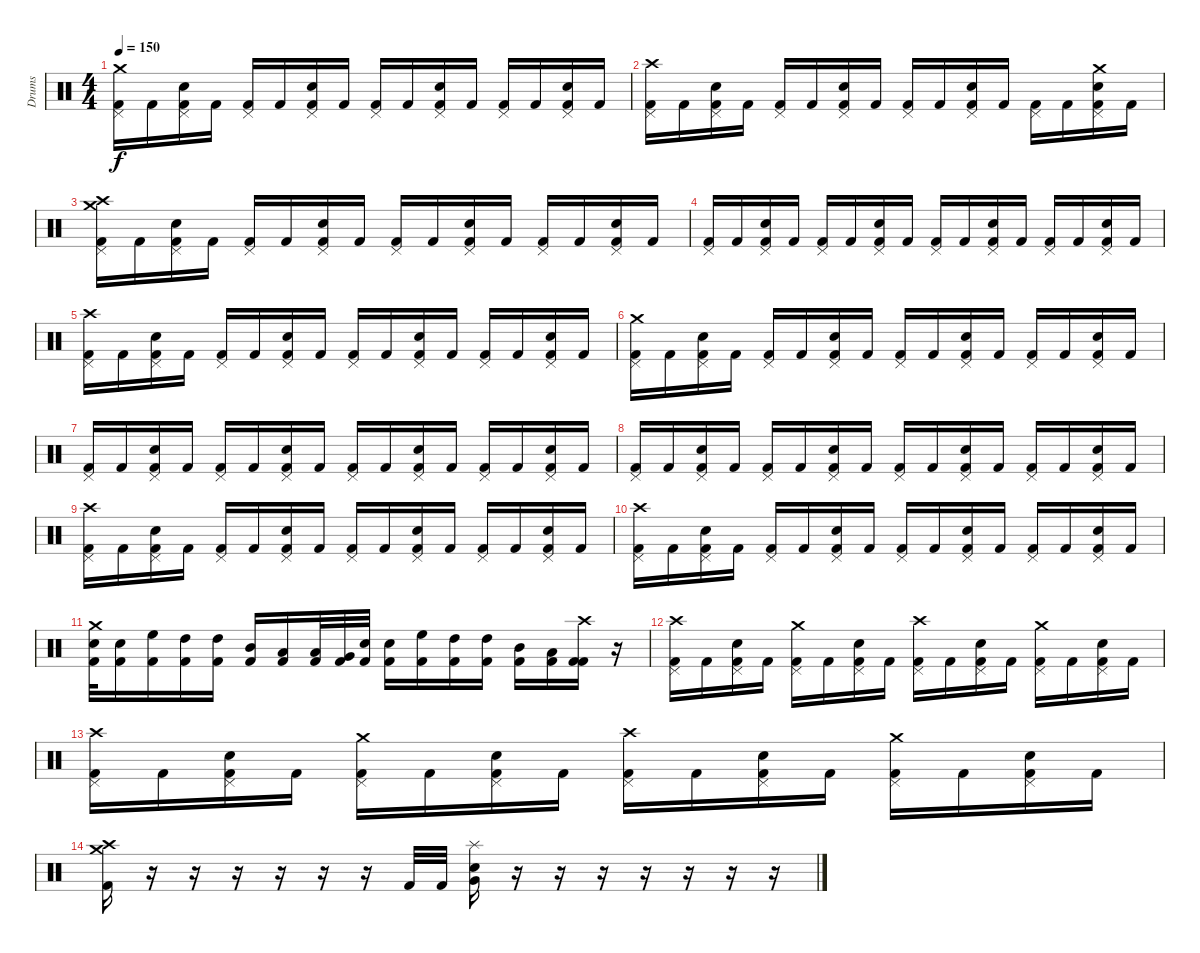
\track ("Drums" "Drums") {instrument percussion}
\staff {score}
\articulation defaults
\ts (4 4)
\tempo 150
\clef neutral
\ks c
("Crash medium (hit)" "Pedal Hi-Hat (hit)" "Kick (hit) 2").16{dy f} "Kick (hit) 2".16 ("Pedal Hi-Hat (hit)" "Kick (hit) 2" "Electric Snare (hit)").16 "Kick (hit) 2".16 ("Pedal Hi-Hat (hit)" "Kick (hit) 2").16 "Kick (hit) 2".16 ("Pedal Hi-Hat (hit)" "Kick (hit) 2" "Electric Snare (hit)").16 "Kick (hit) 2".16 ("Pedal Hi-Hat (hit)" "Kick (hit) 2").16 "Kick (hit) 2".16 ("Pedal Hi-Hat (hit)" "Kick (hit) 2" "Electric Snare (hit)").16 "Kick (hit) 2".16 ("Pedal Hi-Hat (hit)" "Kick (hit) 2").16 "Kick (hit) 2".16 ("Pedal Hi-Hat (hit)" "Kick (hit) 2" "Electric Snare (hit)").16 "Kick (hit) 2".16 |
("Crash high (hit)" "Pedal Hi-Hat (hit)" "Kick (hit) 2").16 "Kick (hit) 2".16 ("Pedal Hi-Hat (hit)" "Kick (hit) 2" "Electric Snare (hit)").16 "Kick (hit) 2".16 ("Pedal Hi-Hat (hit)" "Kick (hit) 2").16 "Kick (hit) 2".16 ("Pedal Hi-Hat (hit)" "Kick (hit) 2" "Electric Snare (hit)").16 "Kick (hit) 2".16 ("Pedal Hi-Hat (hit)" "Kick (hit) 2").16 "Kick (hit) 2".16 ("Pedal Hi-Hat (hit)" "Kick (hit) 2" "Electric Snare (hit)").16 "Kick (hit) 2".16 ("Pedal Hi-Hat (hit)" "Kick (hit) 2").16 "Kick (hit) 2".16 ("Crash medium (hit)" "Pedal Hi-Hat (hit)" "Kick (hit) 2" "Electric Snare (hit)").16 "Kick (hit) 2".16 |
("Crash medium (hit)" "Crash high (hit)" "Pedal Hi-Hat (hit)" "Kick (hit) 2").16 "Kick (hit) 2".16 ("Pedal Hi-Hat (hit)" "Kick (hit) 2" "Electric Snare (hit)").16 "Kick (hit) 2".16 ("Pedal Hi-Hat (hit)" "Kick (hit) 2").16 "Kick (hit) 2".16 ("Pedal Hi-Hat (hit)" "Kick (hit) 2" "Electric Snare (hit)").16 "Kick (hit) 2".16 ("Pedal Hi-Hat (hit)" "Kick (hit) 2").16 "Kick (hit) 2".16 ("Pedal Hi-Hat (hit)" "Kick (hit) 2" "Electric Snare (hit)").16 "Kick (hit) 2".16 ("Pedal Hi-Hat (hit)" "Kick (hit) 2").16 "Kick (hit) 2".16 ("Pedal Hi-Hat (hit)" "Kick (hit) 2" "Electric Snare (hit)").16 "Kick (hit) 2".16 |
("Pedal Hi-Hat (hit)" "Kick (hit) 2").16 "Kick (hit) 2".16 ("Pedal Hi-Hat (hit)" "Kick (hit) 2" "Electric Snare (hit)").16 "Kick (hit) 2".16 ("Pedal Hi-Hat (hit)" "Kick (hit) 2").16 "Kick (hit) 2".16 ("Pedal Hi-Hat (hit)" "Kick (hit) 2" "Electric Snare (hit)").16 "Kick (hit) 2".16 ("Pedal Hi-Hat (hit)" "Kick (hit) 2").16 "Kick (hit) 2".16 ("Pedal Hi-Hat (hit)" "Kick (hit) 2" "Electric Snare (hit)").16 "Kick (hit) 2".16 ("Pedal Hi-Hat (hit)" "Kick (hit) 2").16 "Kick (hit) 2".16 ("Pedal Hi-Hat (hit)" "Kick (hit) 2" "Electric Snare (hit)").16 "Kick (hit) 2".16 |
("Crash high (hit)" "Pedal Hi-Hat (hit)" "Kick (hit) 2").16 "Kick (hit) 2".16 ("Pedal Hi-Hat (hit)" "Kick (hit) 2" "Electric Snare (hit)").16 "Kick (hit) 2".16 ("Pedal Hi-Hat (hit)" "Kick (hit) 2").16 "Kick (hit) 2".16 ("Pedal Hi-Hat (hit)" "Kick (hit) 2" "Electric Snare (hit)").16 "Kick (hit) 2".16 ("Pedal Hi-Hat (hit)" "Kick (hit) 2").16 "Kick (hit) 2".16 ("Pedal Hi-Hat (hit)" "Kick (hit) 2" "Electric Snare (hit)").16 "Kick (hit) 2".16 ("Pedal Hi-Hat (hit)" "Kick (hit) 2").16 "Kick (hit) 2".16 ("Pedal Hi-Hat (hit)" "Kick (hit) 2" "Electric Snare (hit)").16 "Kick (hit) 2".16 |
("Crash medium (hit)" "Pedal Hi-Hat (hit)" "Kick (hit) 2").16 "Kick (hit) 2".16 ("Pedal Hi-Hat (hit)" "Kick (hit) 2" "Electric Snare (hit)").16 "Kick (hit) 2".16 ("Pedal Hi-Hat (hit)" "Kick (hit) 2").16 "Kick (hit) 2".16 ("Pedal Hi-Hat (hit)" "Kick (hit) 2" "Electric Snare (hit)").16 "Kick (hit) 2".16 ("Pedal Hi-Hat (hit)" "Kick (hit) 2").16 "Kick (hit) 2".16 ("Pedal Hi-Hat (hit)" "Kick (hit) 2" "Electric Snare (hit)").16 "Kick (hit) 2".16 ("Pedal Hi-Hat (hit)" "Kick (hit) 2").16 "Kick (hit) 2".16 ("Pedal Hi-Hat (hit)" "Kick (hit) 2" "Electric Snare (hit)").16 "Kick (hit) 2".16 |
("Pedal Hi-Hat (hit)" "Kick (hit) 2").16 "Kick (hit) 2".16 ("Pedal Hi-Hat (hit)" "Kick (hit) 2" "Electric Snare (hit)").16 "Kick (hit) 2".16 ("Pedal Hi-Hat (hit)" "Kick (hit) 2").16 "Kick (hit) 2".16 ("Pedal Hi-Hat (hit)" "Kick (hit) 2" "Electric Snare (hit)").16 "Kick (hit) 2".16 ("Pedal Hi-Hat (hit)" "Kick (hit) 2").16 "Kick (hit) 2".16 ("Pedal Hi-Hat (hit)" "Kick (hit) 2" "Electric Snare (hit)").16 "Kick (hit) 2".16 ("Pedal Hi-Hat (hit)" "Kick (hit) 2").16 "Kick (hit) 2".16 ("Pedal Hi-Hat (hit)" "Kick (hit) 2" "Electric Snare (hit)").16 "Kick (hit) 2".16 |
("Pedal Hi-Hat (hit)" "Kick (hit) 2").16 "Kick (hit) 2".16 ("Pedal Hi-Hat (hit)" "Kick (hit) 2" "Electric Snare (hit)").16 "Kick (hit) 2".16 ("Pedal Hi-Hat (hit)" "Kick (hit) 2").16 "Kick (hit) 2".16 ("Pedal Hi-Hat (hit)" "Kick (hit) 2" "Electric Snare (hit)").16 "Kick (hit) 2".16 ("Pedal Hi-Hat (hit)" "Kick (hit) 2").16 "Kick (hit) 2".16 ("Pedal Hi-Hat (hit)" "Kick (hit) 2" "Electric Snare (hit)").16 "Kick (hit) 2".16 ("Pedal Hi-Hat (hit)" "Kick (hit) 2").16 "Kick (hit) 2".16 ("Pedal Hi-Hat (hit)" "Kick (hit) 2" "Electric Snare (hit)").16 "Kick (hit) 2".16 |
("Crash high (hit)" "Pedal Hi-Hat (hit)" "Kick (hit) 2").16 "Kick (hit) 2".16 ("Pedal Hi-Hat (hit)" "Kick (hit) 2" "Electric Snare (hit)").16 "Kick (hit) 2".16 ("Pedal Hi-Hat (hit)" "Kick (hit) 2").16 "Kick (hit) 2".16 ("Pedal Hi-Hat (hit)" "Kick (hit) 2" "Electric Snare (hit)").16 "Kick (hit) 2".16 ("Pedal Hi-Hat (hit)" "Kick (hit) 2").16 "Kick (hit) 2".16 ("Pedal Hi-Hat (hit)" "Kick (hit) 2" "Electric Snare (hit)").16 "Kick (hit) 2".16 ("Pedal Hi-Hat (hit)" "Kick (hit) 2").16 "Kick (hit) 2".16 ("Pedal Hi-Hat (hit)" "Kick (hit) 2" "Electric Snare (hit)").16 "Kick (hit) 2".16 |
("Crash high (hit)" "Pedal Hi-Hat (hit)" "Kick (hit) 2").16 "Kick (hit) 2".16 ("Pedal Hi-Hat (hit)" "Kick (hit) 2" "Electric Snare (hit)").16 "Kick (hit) 2".16 ("Pedal Hi-Hat (hit)" "Kick (hit) 2").16 "Kick (hit) 2".16 ("Pedal Hi-Hat (hit)" "Kick (hit) 2" "Electric Snare (hit)").16 "Kick (hit) 2".16 ("Pedal Hi-Hat (hit)" "Kick (hit) 2").16 "Kick (hit) 2".16 ("Pedal Hi-Hat (hit)" "Kick (hit) 2" "Electric Snare (hit)").16 "Kick (hit) 2".16 ("Pedal Hi-Hat (hit)" "Kick (hit) 2").16 "Kick (hit) 2".16 ("Pedal Hi-Hat (hit)" "Kick (hit) 2" "Electric Snare (hit)").16 "Kick (hit) 2".16 |
("Crash medium (hit)" "Electric Snare (hit)" "Kick (hit) 2").32 ("Electric Snare (hit)" "Kick (hit) 2").16 ("High Floor Tom (hit)" "Kick (hit) 2").16 ("High Tom (hit)" "Kick (hit) 2").16 ("High Tom (hit)" "Kick (hit) 2").16 ("Mid Tom (hit)" "Kick (hit) 2").16 ("Low Tom (hit)" "Kick (hit) 2").16 ("Low Tom (hit)" "Kick (hit) 2").32 ("Very Low Tom (hit)" "Kick (hit) 2").32 ("Electric Snare (hit)" "Kick (hit) 2").32 ("Electric Snare (hit)" "Kick (hit) 2").16 ("High Floor Tom (hit)" "Kick (hit) 2").16 ("High Tom (hit)" "Kick (hit) 2").16 ("High Tom (hit)" "Kick (hit) 2").16 ("Mid Tom (hit)" "Kick (hit) 2").16 ("Low Tom (hit)" "Kick (hit) 2").16 ("Crash high (hit)" "Kick (hit) 2" "Kick (hit) 2").16 r.16 |
("Crash high (hit)" "Pedal Hi-Hat (hit)" "Kick (hit) 2").16 "Kick (hit) 2".16 ("Pedal Hi-Hat (hit)" "Kick (hit) 2" "Electric Snare (hit)").16 "Kick (hit) 2".16 ("Crash medium (hit)" "Pedal Hi-Hat (hit)" "Kick (hit) 2").16 "Kick (hit) 2".16 ("Pedal Hi-Hat (hit)" "Kick (hit) 2" "Electric Snare (hit)").16 "Kick (hit) 2".16 ("Crash high (hit)" "Pedal Hi-Hat (hit)" "Kick (hit) 2").16 "Kick (hit) 2".16 ("Pedal Hi-Hat (hit)" "Kick (hit) 2" "Electric Snare (hit)").16 "Kick (hit) 2".16 ("Crash medium (hit)" "Pedal Hi-Hat (hit)" "Kick (hit) 2").16 "Kick (hit) 2".16 ("Pedal Hi-Hat (hit)" "Kick (hit) 2" "Electric Snare (hit)").16 "Kick (hit) 2".16 |
("Crash high (hit)" "Pedal Hi-Hat (hit)" "Kick (hit) 2").16 "Kick (hit) 2".16 ("Pedal Hi-Hat (hit)" "Kick (hit) 2" "Electric Snare (hit)").16 "Kick (hit) 2".16 ("Crash medium (hit)" "Pedal Hi-Hat (hit)" "Kick (hit) 2").16 "Kick (hit) 2".16 ("Pedal Hi-Hat (hit)" "Kick (hit) 2" "Electric Snare (hit)").16 "Kick (hit) 2".16 ("Crash high (hit)" "Pedal Hi-Hat (hit)" "Kick (hit) 2").16 "Kick (hit) 2".16 ("Pedal Hi-Hat (hit)" "Kick (hit) 2" "Electric Snare (hit)").16 "Kick (hit) 2".16 ("Crash medium (hit)" "Pedal Hi-Hat (hit)" "Kick (hit) 2").16 "Kick (hit) 2".16 ("Pedal Hi-Hat (hit)" "Kick (hit) 2" "Electric Snare (hit)").16 "Kick (hit) 2".16 |
("Crash high (hit)" "Kick (hit) 2" "Crash medium (hit)").16 r.16 r.16 r.16 r.16 r.16 r.16 "Kick (hit) 2".32 "Kick (hit) 2".32 ("Very Low Tom (hit)" "Electric Snare (hit)" "Splash (hit)").16 r.16 r.16 r.16 r.16 r.16 r.16 r.16
